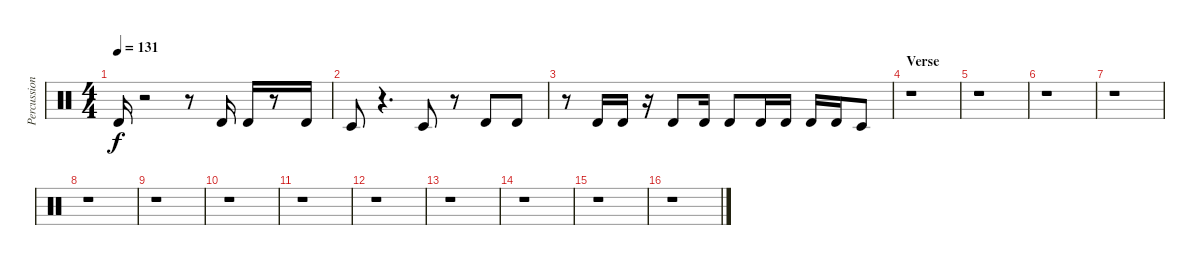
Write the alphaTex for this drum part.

\track ("Percussion" "Percussion") {instrument percussion}
\staff {score}
\articulation defaults
\ts (4 4)
\tempo 131
\clef neutral
\ks c "Timbale high (hit)".16{dy f}
r.2 r.8 "Timbale high (hit)".16 "Timbale high (hit)".16 r.8 "Timbale high (hit)".16 |
"Timbale low (hit)".8 r.4{d} "Timbale low (hit)".8 r.8 "Timbale high (hit)".8 "Timbale high (hit)".8 |
r.8 "Timbale high (hit)".16 "Timbale high (hit)".16 r.16 "Timbale high (hit)".8 "Timbale high (hit)".16 "Timbale high (hit)".8 "Timbale high (hit)".16 "Timbale high (hit)".16 "Timbale high (hit)".16 "Timbale high (hit)".16 "Timbale low (hit)".8 |
\section ("" "Verse")
r.1 |
r.1 |
r.1 |
r.1 |
r.1 |
r.1 |
r.1 |
r.1 |
r.1 |
r.1 |
r.1 |
r.1 |
r.1
